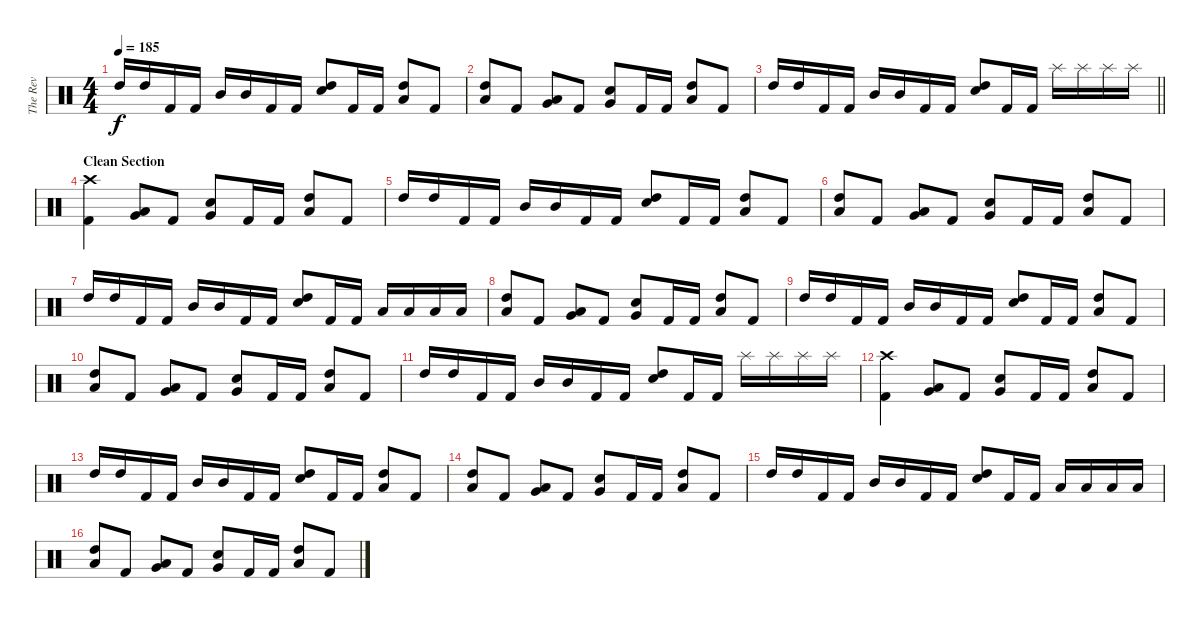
\track ("The Rev" "The Rev") {instrument percussion}
\staff {score}
\articulation defaults
\ts (4 4)
\tempo 185
\clef neutral
\ks c "High Tom (hit)".16{dy f} "High Tom (hit)".16 "Kick (hit) 2".16 "Kick (hit) 2".16 "Mid Tom (hit)".16 "Mid Tom (hit)".16 "Kick (hit) 2".16 "Kick (hit) 2".16
("High Tom (hit)" "Electric Snare (hit)").8 "Kick (hit) 2".16 "Kick (hit) 2".16 ("High Tom (hit)" "Low Tom (hit)").8 "Kick (hit) 2".8 |
("High Tom (hit)" "Low Tom (hit)").8 "Kick (hit) 2".8 ("Low Tom (hit)" "Very Low Tom (hit)").8 "Kick (hit) 2".8 ("Very Low Tom (hit)" "Electric Snare (hit)").8 "Kick (hit) 2".16 "Kick (hit) 2".16 ("High Tom (hit)" "Low Tom (hit)").8 "Kick (hit) 2".8 |
\barLineRight lightlight "High Tom (hit)".16 "High Tom (hit)".16 "Kick (hit) 2".16 "Kick (hit) 2".16 "Mid Tom (hit)".16 "Mid Tom (hit)".16 "Kick (hit) 2".16 "Kick (hit) 2".16
("High Tom (hit)" "Electric Snare (hit)").8 "Kick (hit) 2".16 "Kick (hit) 2".16 "Splash (hit)".16 "Splash (hit)".16 "Splash (hit)".16 "Splash (hit)".16 |
\section ("" "Clean Section")
("Crash high (hit)" "Kick (hit) 2").4 ("Low Tom (hit)" "Very Low Tom (hit)").8 "Kick (hit) 2".8 ("Very Low Tom (hit)" "Electric Snare (hit)").8 "Kick (hit) 2".16 "Kick (hit) 2".16 ("High Tom (hit)" "Low Tom (hit)").8 "Kick (hit) 2".8 |
"High Tom (hit)".16 "High Tom (hit)".16 "Kick (hit) 2".16 "Kick (hit) 2".16 "Mid Tom (hit)".16 "Mid Tom (hit)".16 "Kick (hit) 2".16 "Kick (hit) 2".16 ("High Tom (hit)" "Electric Snare (hit)").8 "Kick (hit) 2".16 "Kick (hit) 2".16 ("High Tom (hit)" "Low Tom (hit)").8 "Kick (hit) 2".8 |
("High Tom (hit)" "Low Tom (hit)").8 "Kick (hit) 2".8 ("Low Tom (hit)" "Very Low Tom (hit)").8 "Kick (hit) 2".8 ("Very Low Tom (hit)" "Electric Snare (hit)").8 "Kick (hit) 2".16 "Kick (hit) 2".16 ("High Tom (hit)" "Low Tom (hit)").8 "Kick (hit) 2".8 |
"High Tom (hit)".16 "High Tom (hit)".16 "Kick (hit) 2".16 "Kick (hit) 2".16 "Mid Tom (hit)".16 "Mid Tom (hit)".16 "Kick (hit) 2".16 "Kick (hit) 2".16 ("High Tom (hit)" "Electric Snare (hit)").8 "Kick (hit) 2".16 "Kick (hit) 2".16 "Low Tom (hit)".16 "Low Tom (hit)".16 "Low Tom (hit)".16 "Low Tom (hit)".16 |
("High Tom (hit)" "Low Tom (hit)").8 "Kick (hit) 2".8 ("Low Tom (hit)" "Very Low Tom (hit)").8 "Kick (hit) 2".8 ("Very Low Tom (hit)" "Electric Snare (hit)").8 "Kick (hit) 2".16 "Kick (hit) 2".16 ("High Tom (hit)" "Low Tom (hit)").8 "Kick (hit) 2".8 |
"High Tom (hit)".16 "High Tom (hit)".16 "Kick (hit) 2".16 "Kick (hit) 2".16 "Mid Tom (hit)".16 "Mid Tom (hit)".16 "Kick (hit) 2".16 "Kick (hit) 2".16 ("High Tom (hit)" "Electric Snare (hit)").8 "Kick (hit) 2".16 "Kick (hit) 2".16 ("High Tom (hit)" "Low Tom (hit)").8 "Kick (hit) 2".8 |
("High Tom (hit)" "Low Tom (hit)").8 "Kick (hit) 2".8 ("Low Tom (hit)" "Very Low Tom (hit)").8 "Kick (hit) 2".8 ("Very Low Tom (hit)" "Electric Snare (hit)").8 "Kick (hit) 2".16 "Kick (hit) 2".16 ("High Tom (hit)" "Low Tom (hit)").8 "Kick (hit) 2".8 |
"High Tom (hit)".16 "High Tom (hit)".16 "Kick (hit) 2".16 "Kick (hit) 2".16 "Mid Tom (hit)".16 "Mid Tom (hit)".16 "Kick (hit) 2".16 "Kick (hit) 2".16 ("High Tom (hit)" "Electric Snare (hit)").8 "Kick (hit) 2".16 "Kick (hit) 2".16 "Splash (hit)".16 "Splash (hit)".16 "Splash (hit)".16 "Splash (hit)".16 |
("Crash high (hit)" "Kick (hit) 2").4 ("Low Tom (hit)" "Very Low Tom (hit)").8 "Kick (hit) 2".8 ("Very Low Tom (hit)" "Electric Snare (hit)").8 "Kick (hit) 2".16 "Kick (hit) 2".16 ("High Tom (hit)" "Low Tom (hit)").8 "Kick (hit) 2".8 |
"High Tom (hit)".16 "High Tom (hit)".16 "Kick (hit) 2".16 "Kick (hit) 2".16 "Mid Tom (hit)".16 "Mid Tom (hit)".16 "Kick (hit) 2".16 "Kick (hit) 2".16 ("High Tom (hit)" "Electric Snare (hit)").8 "Kick (hit) 2".16 "Kick (hit) 2".16 ("High Tom (hit)" "Low Tom (hit)").8 "Kick (hit) 2".8 |
("High Tom (hit)" "Low Tom (hit)").8 "Kick (hit) 2".8 ("Low Tom (hit)" "Very Low Tom (hit)").8 "Kick (hit) 2".8 ("Very Low Tom (hit)" "Electric Snare (hit)").8 "Kick (hit) 2".16 "Kick (hit) 2".16 ("High Tom (hit)" "Low Tom (hit)").8 "Kick (hit) 2".8 |
"High Tom (hit)".16 "High Tom (hit)".16 "Kick (hit) 2".16 "Kick (hit) 2".16 "Mid Tom (hit)".16 "Mid Tom (hit)".16 "Kick (hit) 2".16 "Kick (hit) 2".16 ("High Tom (hit)" "Electric Snare (hit)").8 "Kick (hit) 2".16 "Kick (hit) 2".16 "Low Tom (hit)".16 "Low Tom (hit)".16 "Low Tom (hit)".16 "Low Tom (hit)".16 |
("High Tom (hit)" "Low Tom (hit)").8 "Kick (hit) 2".8 ("Low Tom (hit)" "Very Low Tom (hit)").8 "Kick (hit) 2".8 ("Very Low Tom (hit)" "Electric Snare (hit)").8 "Kick (hit) 2".16 "Kick (hit) 2".16 ("High Tom (hit)" "Low Tom (hit)").8 "Kick (hit) 2".8
